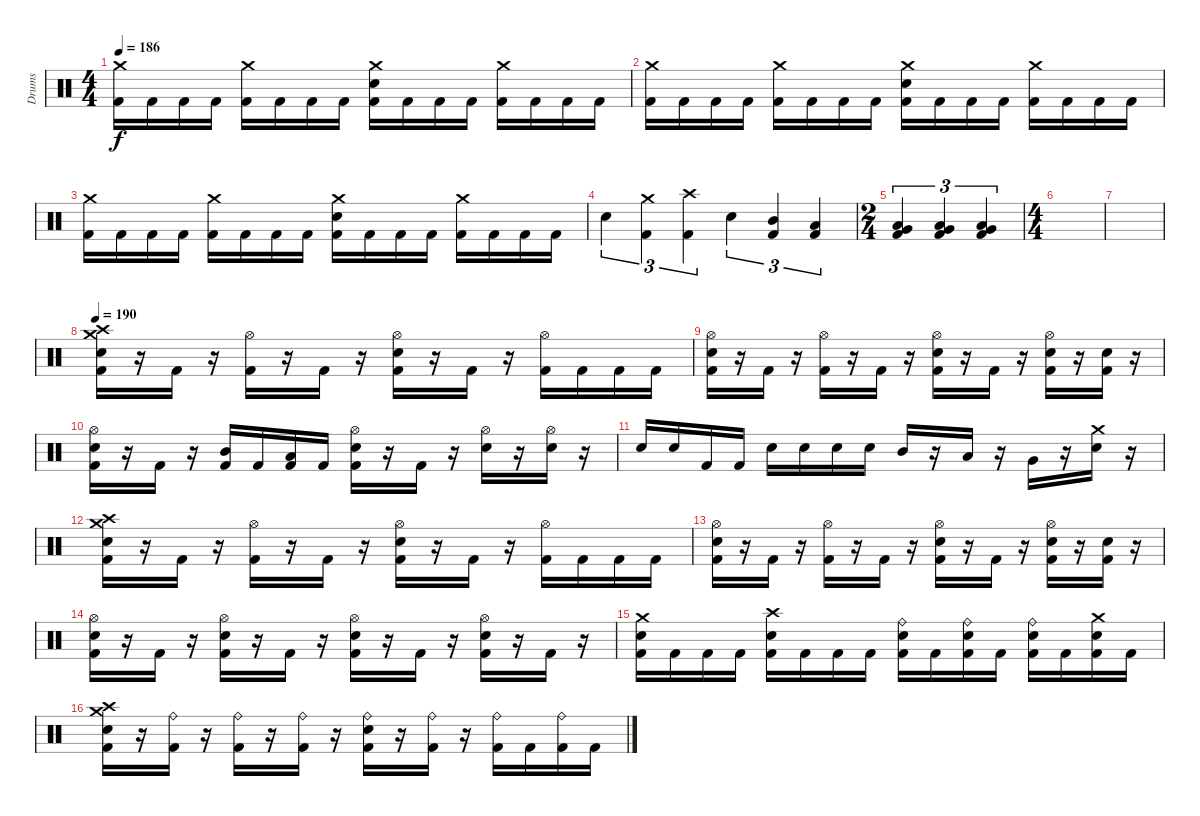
\track ("Drums" "Drums") {instrument percussion}
\staff {score}
\articulation defaults
\ts (4 4)
\tempo 186
\clef neutral
\ks c
("Crash medium (hit)" "Kick (hit) 2").16{dy f} "Kick (hit) 2".16 "Kick (hit) 2".16 "Kick (hit) 2".16 ("Crash medium (hit)" "Kick (hit) 2").16 "Kick (hit) 2".16 "Kick (hit) 2".16 "Kick (hit) 2".16 ("Crash medium (hit)" "Snare (hit) 2" "Kick (hit) 2").16 "Kick (hit) 2".16 "Kick (hit) 2".16 "Kick (hit) 2".16 ("Crash medium (hit)" "Kick (hit) 2").16 "Kick (hit) 2".16 "Kick (hit) 2".16 "Kick (hit) 2".16 |
("Crash medium (hit)" "Kick (hit) 2").16 "Kick (hit) 2".16 "Kick (hit) 2".16 "Kick (hit) 2".16 ("Crash medium (hit)" "Kick (hit) 2").16 "Kick (hit) 2".16 "Kick (hit) 2".16 "Kick (hit) 2".16 ("Crash medium (hit)" "Snare (hit) 2" "Kick (hit) 2").16 "Kick (hit) 2".16 "Kick (hit) 2".16 "Kick (hit) 2".16 ("Crash medium (hit)" "Kick (hit) 2").16 "Kick (hit) 2".16 "Kick (hit) 2".16 "Kick (hit) 2".16 |
("Crash medium (hit)" "Kick (hit) 2").16 "Kick (hit) 2".16 "Kick (hit) 2".16 "Kick (hit) 2".16 ("Crash medium (hit)" "Kick (hit) 2").16 "Kick (hit) 2".16 "Kick (hit) 2".16 "Kick (hit) 2".16 ("Crash medium (hit)" "Snare (hit) 2" "Kick (hit) 2").16 "Kick (hit) 2".16 "Kick (hit) 2".16 "Kick (hit) 2".16 ("Crash medium (hit)" "Kick (hit) 2").16 "Kick (hit) 2".16 "Kick (hit) 2".16 "Kick (hit) 2".16 |
"Snare (hit) 2".4{tu (3 2)} ("Crash medium (hit)" "Kick (hit) 2").4{tu (3 2)} ("Crash high (hit)" "Kick (hit) 2").4{tu (3 2)} "Snare (hit) 2".4{tu (3 2)} ("Mid Tom (hit)" "Kick (hit) 2").4{tu (3 2)} ("Low Tom (hit)" "Kick (hit) 2").4{tu (3 2)} |
\ts (2 4)
("Low Floor Tom (hit)" "Very Low Tom (hit)" "Kick (hit) 2").4{tu (3 2)} ("Low Floor Tom (hit)" "Very Low Tom (hit)" "Kick (hit) 2").4{tu (3 2)} ("Low Floor Tom (hit)" "Very Low Tom (hit)" "Kick (hit) 2").4{tu (3 2)} |
\ts (4 4)
|
|
\tempo 190
("Crash high (hit)" "Crash medium (hit)" "Snare (hit) 2" "Kick (hit) 2").16 r.16 "Kick (hit) 2".16 r.16 ("Hi-Hat (open)" "Kick (hit) 2").16 r.16 "Kick (hit) 2".16 r.16 ("Hi-Hat (open)" "Snare (hit) 2" "Kick (hit) 2").16 r.16 "Kick (hit) 2".16 r.16 ("Hi-Hat (open)" "Kick (hit) 2").16 "Kick (hit) 2".16 "Kick (hit) 2".16 "Kick (hit) 2".16 |
("Hi-Hat (open)" "Snare (hit) 2" "Kick (hit) 2").16 r.16 "Kick (hit) 2".16 r.16 ("Hi-Hat (open)" "Kick (hit) 2").16 r.16 "Kick (hit) 2".16 r.16 ("Hi-Hat (open)" "Snare (hit) 2" "Kick (hit) 2").16 r.16 "Kick (hit) 2".16 r.16 ("Hi-Hat (open)" "Snare (hit) 2" "Kick (hit) 2").16 r.16 ("Snare (hit) 2" "Kick (hit) 2").16 r.16 |
("Hi-Hat (open)" "Snare (hit) 2" "Kick (hit) 2").16 r.16 "Kick (hit) 2".16 r.16 ("Mid Tom (hit)" "Kick (hit) 2").16 "Kick (hit) 2".16 ("Low Tom (hit)" "Kick (hit) 2").16 "Kick (hit) 2".16 ("Hi-Hat (open)" "Snare (hit) 2" "Kick (hit) 2").16 r.16 "Kick (hit) 2".16 r.16 ("Hi-Hat (open)" "Snare (hit) 2").16 r.16 ("Hi-Hat (open)" "Snare (hit) 2").16 r.16 |
"Snare (hit) 2".16 "Snare (hit) 2".16 "Kick (hit) 2".16 "Kick (hit) 2".16 "Snare (hit) 2".16 "Snare (hit) 2".16 "Snare (hit) 2".16 "Snare (hit) 2".16 "Mid Tom (hit)".16 r.16 "Low Tom (hit)".16 r.16 "Very Low Tom (hit)".16 r.16 ("Crash medium (hit)" "Snare (hit) 2").16 r.16 |
("Crash high (hit)" "Crash medium (hit)" "Snare (hit) 2" "Kick (hit) 2").16 r.16 "Kick (hit) 2".16 r.16 ("Hi-Hat (open)" "Kick (hit) 2").16 r.16 "Kick (hit) 2".16 r.16 ("Hi-Hat (open)" "Snare (hit) 2" "Kick (hit) 2").16 r.16 "Kick (hit) 2".16 r.16 ("Hi-Hat (open)" "Kick (hit) 2").16 "Kick (hit) 2".16 "Kick (hit) 2".16 "Kick (hit) 2".16 |
("Hi-Hat (open)" "Snare (hit) 2" "Kick (hit) 2").16 r.16 "Kick (hit) 2".16 r.16 ("Hi-Hat (open)" "Kick (hit) 2").16 r.16 "Kick (hit) 2".16 r.16 ("Hi-Hat (open)" "Snare (hit) 2" "Kick (hit) 2").16 r.16 "Kick (hit) 2".16 r.16 ("Hi-Hat (open)" "Snare (hit) 2" "Kick (hit) 2").16 r.16 ("Snare (hit) 2" "Kick (hit) 2").16 r.16 |
("Hi-Hat (open)" "Snare (hit) 2" "Kick (hit) 2").16 r.16 "Kick (hit) 2".16 r.16 ("Hi-Hat (open)" "Snare (hit) 2" "Kick (hit) 2").16 r.16 "Kick (hit) 2".16 r.16 ("Hi-Hat (open)" "Snare (hit) 2" "Kick (hit) 2").16 r.16 "Kick (hit) 2".16 r.16 ("Hi-Hat (open)" "Snare (hit) 2" "Kick (hit) 2").16 r.16 "Kick (hit) 2".16 r.16 |
("Crash medium (hit)" "Snare (hit) 2" "Kick (hit) 2").16 "Kick (hit) 2".16 "Kick (hit) 2".16 "Kick (hit) 2".16 ("Crash high (hit)" "Snare (hit) 2" "Kick (hit) 2").16 "Kick (hit) 2".16 "Kick (hit) 2".16 "Kick (hit) 2".16 ("Ride (bell)" "Snare (hit) 2" "Kick (hit) 2").16 "Kick (hit) 2".16 ("Ride (bell)" "Snare (hit) 2" "Kick (hit) 2").16 "Kick (hit) 2".16 ("Ride (bell)" "Snare (hit) 2" "Kick (hit) 2").16 "Kick (hit) 2".16 ("Crash medium (hit)" "Snare (hit) 2" "Kick (hit) 2").16 "Kick (hit) 2".16 |
("Crash high (hit)" "Crash medium (hit)" "Snare (hit) 2" "Kick (hit) 2").16 r.16 ("Ride (bell)" "Kick (hit) 2").16 r.16 ("Ride (bell)" "Kick (hit) 2").16 r.16 ("Ride (bell)" "Kick (hit) 2").16 r.16 ("Ride (bell)" "Snare (hit) 2" "Kick (hit) 2").16 r.16 ("Ride (bell)" "Kick (hit) 2").16 r.16 ("Ride (bell)" "Kick (hit) 2").16 "Kick (hit) 2".16 ("Ride (bell)" "Kick (hit) 2").16 "Kick (hit) 2".16
